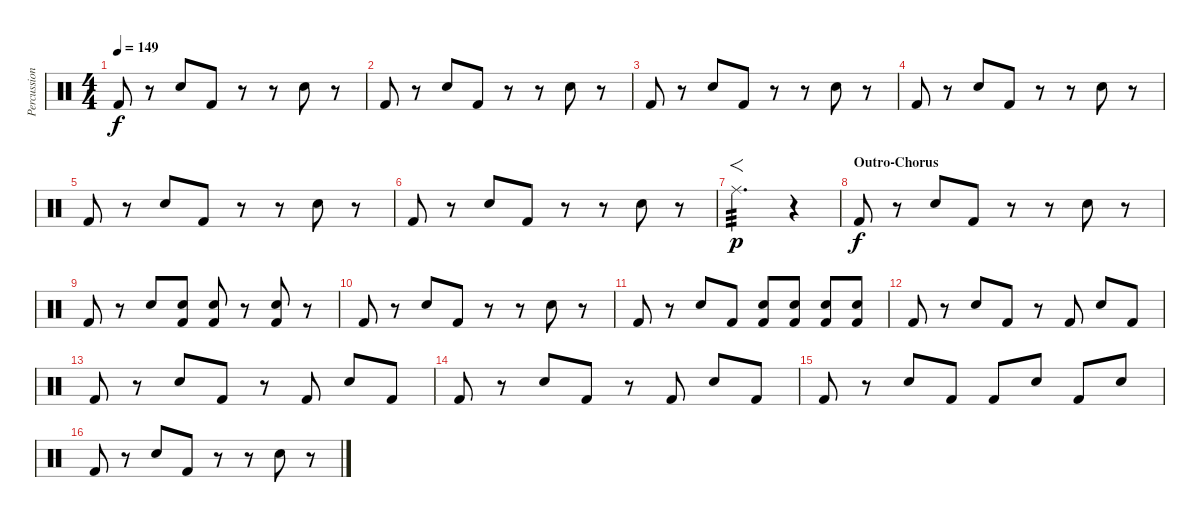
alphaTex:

\track ("Percussion" "Percussion") {instrument percussion}
\staff {score}
\articulation defaults
\ts (4 4)
\tempo 149
\clef neutral
\ks c "Kick (hit) 2".8{dy f}
r.8 "Hand Clap (hit)".8 "Kick (hit) 2".8 r.8 r.8 "Hand Clap (hit)".8 r.8 |
"Kick (hit) 2".8 r.8 "Hand Clap (hit)".8 "Kick (hit) 2".8 r.8 r.8 "Hand Clap (hit)".8 r.8 |
"Kick (hit) 2".8 r.8 "Hand Clap (hit)".8 "Kick (hit) 2".8 r.8 r.8 "Hand Clap (hit)".8 r.8 |
"Kick (hit) 2".8 r.8 "Hand Clap (hit)".8 "Kick (hit) 2".8 r.8 r.8 "Hand Clap (hit)".8 r.8 |
"Kick (hit) 2".8 r.8 "Hand Clap (hit)".8 "Kick (hit) 2".8 r.8 r.8 "Hand Clap (hit)".8 r.8 |
"Kick (hit) 2".8 r.8 "Hand Clap (hit)".8 "Kick (hit) 2".8 r.8 r.8 "Hand Clap (hit)".8 r.8 |
"Ride (middle)".2{f d tp 3 dy p} r.4 |
\section ("" "Outro-Chorus")
"Kick (hit) 2".8{dy f} r.8 "Hand Clap (hit)".8 "Kick (hit) 2".8 r.8 r.8 "Hand Clap (hit)".8 r.8 |
"Kick (hit) 2".8 r.8 "Hand Clap (hit)".8 ("Hand Clap (hit)" "Kick (hit) 2").8 ("Hand Clap (hit)" "Kick (hit) 2").8 r.8 ("Hand Clap (hit)" "Kick (hit) 2").8 r.8 |
"Kick (hit) 2".8 r.8 "Hand Clap (hit)".8 "Kick (hit) 2".8 r.8 r.8 "Hand Clap (hit)".8 r.8 |
"Kick (hit) 2".8 r.8 "Hand Clap (hit)".8 "Kick (hit) 2".8 ("Hand Clap (hit)" "Kick (hit) 2").8 ("Hand Clap (hit)" "Kick (hit) 2").8 ("Hand Clap (hit)" "Kick (hit) 2").8 ("Hand Clap (hit)" "Kick (hit) 2").8 |
"Kick (hit) 2".8 r.8 "Hand Clap (hit)".8 "Kick (hit) 2".8 r.8 "Kick (hit) 2".8 "Hand Clap (hit)".8 "Kick (hit) 2".8 |
"Kick (hit) 2".8 r.8 "Hand Clap (hit)".8 "Kick (hit) 2".8 r.8 "Kick (hit) 2".8 "Hand Clap (hit)".8 "Kick (hit) 2".8 |
"Kick (hit) 2".8 r.8 "Hand Clap (hit)".8 "Kick (hit) 2".8 r.8 "Kick (hit) 2".8 "Hand Clap (hit)".8 "Kick (hit) 2".8 |
"Kick (hit) 2".8 r.8 "Hand Clap (hit)".8 "Kick (hit) 2".8 "Kick (hit) 2".8 "Hand Clap (hit)".8 "Kick (hit) 2".8 "Hand Clap (hit)".8 |
"Kick (hit) 2".8 r.8 "Hand Clap (hit)".8 "Kick (hit) 2".8 r.8 r.8 "Hand Clap (hit)".8 r.8
